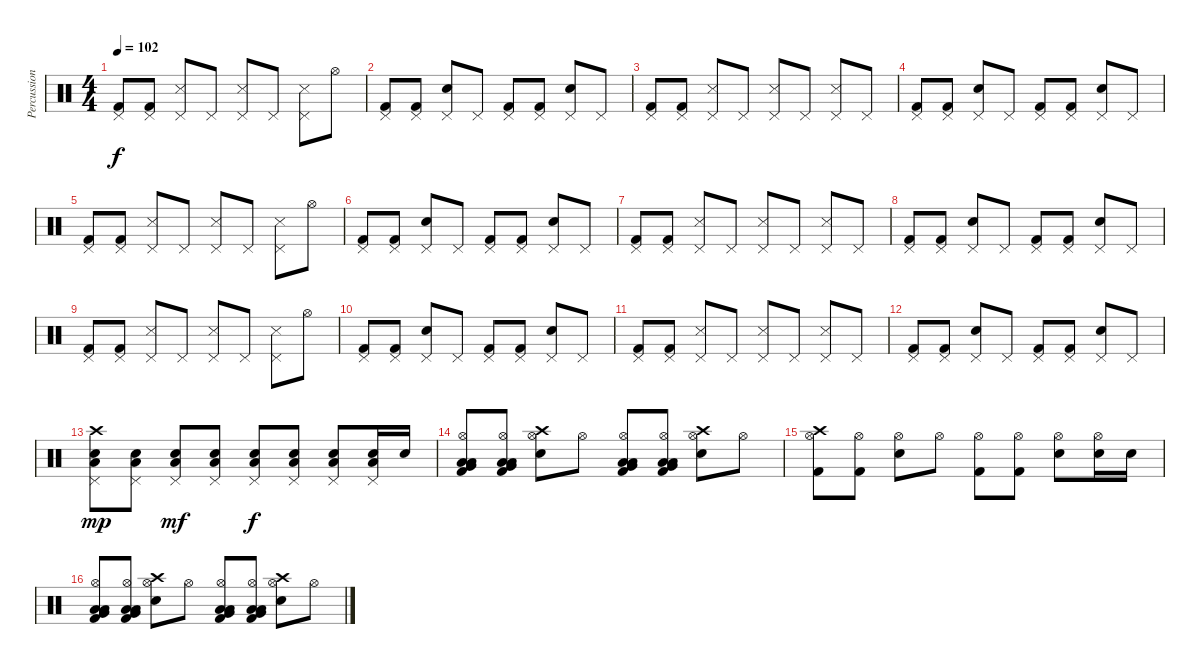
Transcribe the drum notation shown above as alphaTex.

\track ("Percussion" "Percussion") {instrument percussion}
\staff {score}
\articulation defaults
\ts (4 4)
\tempo 102
\clef neutral
\ks c
("Kick (hit) 2" "Pedal Hi-Hat (hit)").8{dy f} ("Kick (hit) 2" "Pedal Hi-Hat (hit)").8 ("Metronome (hit)" "Pedal Hi-Hat (hit)").8 "Pedal Hi-Hat (hit)".8 ("Metronome (hit)" "Pedal Hi-Hat (hit)").8 "Pedal Hi-Hat (hit)".8 ("Metronome (hit)" "Pedal Hi-Hat (hit)").8 "Hi-Hat (open)".8 |
("Kick (hit) 2" "Pedal Hi-Hat (hit)").8 ("Kick (hit) 2" "Pedal Hi-Hat (hit)").8 ("Snare (hit) 2" "Pedal Hi-Hat (hit)").8 "Pedal Hi-Hat (hit)".8 ("Kick (hit) 2" "Pedal Hi-Hat (hit)").8 ("Kick (hit) 2" "Pedal Hi-Hat (hit)").8 ("Snare (hit) 2" "Pedal Hi-Hat (hit)").8 "Pedal Hi-Hat (hit)".8 |
("Kick (hit) 2" "Pedal Hi-Hat (hit)").8 ("Kick (hit) 2" "Pedal Hi-Hat (hit)").8 ("Metronome (hit)" "Pedal Hi-Hat (hit)").8 "Pedal Hi-Hat (hit)".8 ("Metronome (hit)" "Pedal Hi-Hat (hit)").8 "Pedal Hi-Hat (hit)".8 ("Metronome (hit)" "Pedal Hi-Hat (hit)").8 "Pedal Hi-Hat (hit)".8 |
("Kick (hit) 2" "Pedal Hi-Hat (hit)").8 ("Kick (hit) 2" "Pedal Hi-Hat (hit)").8 ("Snare (hit) 2" "Pedal Hi-Hat (hit)").8 "Pedal Hi-Hat (hit)".8 ("Kick (hit) 2" "Pedal Hi-Hat (hit)").8 ("Kick (hit) 2" "Pedal Hi-Hat (hit)").8 ("Snare (hit) 2" "Pedal Hi-Hat (hit)").8 "Pedal Hi-Hat (hit)".8 |
("Kick (hit) 2" "Pedal Hi-Hat (hit)").8 ("Kick (hit) 2" "Pedal Hi-Hat (hit)").8 ("Metronome (hit)" "Pedal Hi-Hat (hit)").8 "Pedal Hi-Hat (hit)".8 ("Metronome (hit)" "Pedal Hi-Hat (hit)").8 "Pedal Hi-Hat (hit)".8 ("Metronome (hit)" "Pedal Hi-Hat (hit)").8 "Hi-Hat (open)".8 |
("Kick (hit) 2" "Pedal Hi-Hat (hit)").8 ("Kick (hit) 2" "Pedal Hi-Hat (hit)").8 ("Snare (hit) 2" "Pedal Hi-Hat (hit)").8 "Pedal Hi-Hat (hit)".8 ("Kick (hit) 2" "Pedal Hi-Hat (hit)").8 ("Kick (hit) 2" "Pedal Hi-Hat (hit)").8 ("Snare (hit) 2" "Pedal Hi-Hat (hit)").8 "Pedal Hi-Hat (hit)".8 |
("Kick (hit) 2" "Pedal Hi-Hat (hit)").8 ("Kick (hit) 2" "Pedal Hi-Hat (hit)").8 ("Metronome (hit)" "Pedal Hi-Hat (hit)").8 "Pedal Hi-Hat (hit)".8 ("Metronome (hit)" "Pedal Hi-Hat (hit)").8 "Pedal Hi-Hat (hit)".8 ("Metronome (hit)" "Pedal Hi-Hat (hit)").8 "Pedal Hi-Hat (hit)".8 |
("Kick (hit) 2" "Pedal Hi-Hat (hit)").8 ("Kick (hit) 2" "Pedal Hi-Hat (hit)").8 ("Snare (hit) 2" "Pedal Hi-Hat (hit)").8 "Pedal Hi-Hat (hit)".8 ("Kick (hit) 2" "Pedal Hi-Hat (hit)").8 ("Kick (hit) 2" "Pedal Hi-Hat (hit)").8 ("Snare (hit) 2" "Pedal Hi-Hat (hit)").8 "Pedal Hi-Hat (hit)".8 |
("Kick (hit) 2" "Pedal Hi-Hat (hit)").8 ("Kick (hit) 2" "Pedal Hi-Hat (hit)").8 ("Metronome (hit)" "Pedal Hi-Hat (hit)").8 "Pedal Hi-Hat (hit)".8 ("Metronome (hit)" "Pedal Hi-Hat (hit)").8 "Pedal Hi-Hat (hit)".8 ("Metronome (hit)" "Pedal Hi-Hat (hit)").8 "Hi-Hat (open)".8 |
("Kick (hit) 2" "Pedal Hi-Hat (hit)").8 ("Kick (hit) 2" "Pedal Hi-Hat (hit)").8 ("Snare (hit) 2" "Pedal Hi-Hat (hit)").8 "Pedal Hi-Hat (hit)".8 ("Kick (hit) 2" "Pedal Hi-Hat (hit)").8 ("Kick (hit) 2" "Pedal Hi-Hat (hit)").8 ("Snare (hit) 2" "Pedal Hi-Hat (hit)").8 "Pedal Hi-Hat (hit)".8 |
("Kick (hit) 2" "Pedal Hi-Hat (hit)").8 ("Kick (hit) 2" "Pedal Hi-Hat (hit)").8 ("Metronome (hit)" "Pedal Hi-Hat (hit)").8 "Pedal Hi-Hat (hit)".8 ("Metronome (hit)" "Pedal Hi-Hat (hit)").8 "Pedal Hi-Hat (hit)".8 ("Metronome (hit)" "Pedal Hi-Hat (hit)").8 "Pedal Hi-Hat (hit)".8 |
("Kick (hit) 2" "Pedal Hi-Hat (hit)").8 ("Kick (hit) 2" "Pedal Hi-Hat (hit)").8 ("Snare (hit) 2" "Pedal Hi-Hat (hit)").8 "Pedal Hi-Hat (hit)".8 ("Kick (hit) 2" "Pedal Hi-Hat (hit)").8 ("Kick (hit) 2" "Pedal Hi-Hat (hit)").8 ("Snare (hit) 2" "Pedal Hi-Hat (hit)").8 "Pedal Hi-Hat (hit)".8 |
("Snare (hit) 2" "Low Tom (hit)" "Crash high (hit)" "Pedal Hi-Hat (hit)").8{dy mp} ("Snare (hit) 2" "Low Tom (hit)" "Pedal Hi-Hat (hit)").8 ("Snare (hit) 2" "Low Tom (hit)" "Pedal Hi-Hat (hit)").8{dy mf} ("Snare (hit) 2" "Low Tom (hit)" "Pedal Hi-Hat (hit)").8 ("Snare (hit) 2" "Low Tom (hit)" "Pedal Hi-Hat (hit)").8{dy f} ("Snare (hit) 2" "Low Tom (hit)" "Pedal Hi-Hat (hit)").8 ("Snare (hit) 2" "Low Tom (hit)" "Pedal Hi-Hat (hit)").8 ("Snare (hit) 2" "Low Tom (hit)" "Pedal Hi-Hat (hit)").16 "Snare (hit) 2".16 |
("Kick (hit) 2" "Hi-Hat (open)" "Low Tom (hit)" "Very Low Tom (hit)" "Low Floor Tom (hit)").8 ("Kick (hit) 2" "Hi-Hat (open)" "Low Tom (hit)" "Very Low Tom (hit)" "Low Floor Tom (hit)").8 ("Snare (hit) 2" "Hi-Hat (open)" "Crash high (hit)").8 "Hi-Hat (open)".8 ("Kick (hit) 2" "Hi-Hat (open)" "Low Tom (hit)" "Very Low Tom (hit)" "Low Floor Tom (hit)").8 ("Kick (hit) 2" "Hi-Hat (open)" "Low Tom (hit)" "Very Low Tom (hit)" "Low Floor Tom (hit)").8 ("Snare (hit) 2" "Hi-Hat (open)" "Crash high (hit)").8 "Hi-Hat (open)".8 |
("Kick (hit) 2" "Hi-Hat (open)" "Crash high (hit)").8 ("Kick (hit) 2" "Hi-Hat (open)").8 ("Snare (hit) 2" "Hi-Hat (open)").8 "Hi-Hat (open)".8 ("Kick (hit) 2" "Hi-Hat (open)").8 ("Kick (hit) 2" "Hi-Hat (open)").8 ("Snare (hit) 2" "Hi-Hat (open)").8 ("Snare (hit) 2" "Hi-Hat (open)").16 "Snare (hit) 2".16 |
("Kick (hit) 2" "Hi-Hat (open)" "Low Tom (hit)" "Very Low Tom (hit)" "Low Floor Tom (hit)").8 ("Kick (hit) 2" "Hi-Hat (open)" "Low Tom (hit)" "Very Low Tom (hit)" "Low Floor Tom (hit)").8 ("Snare (hit) 2" "Hi-Hat (open)" "Crash high (hit)").8 "Hi-Hat (open)".8 ("Kick (hit) 2" "Hi-Hat (open)" "Low Tom (hit)" "Very Low Tom (hit)" "Low Floor Tom (hit)").8 ("Kick (hit) 2" "Hi-Hat (open)" "Low Tom (hit)" "Very Low Tom (hit)" "Low Floor Tom (hit)").8 ("Snare (hit) 2" "Hi-Hat (open)" "Crash high (hit)").8 "Hi-Hat (open)".8
